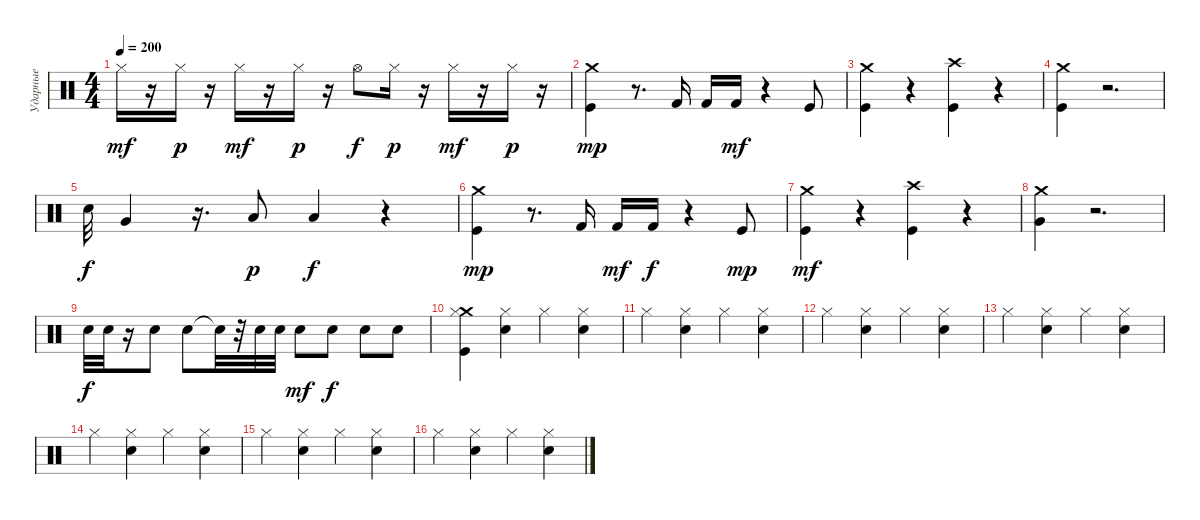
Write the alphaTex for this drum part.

\track ("Ударные" "Ударные") {instrument percussion}
\staff {score}
\articulation defaults
\ts (4 4)
\tempo 200
\clef neutral
\ks c "Hi-Hat (closed)".16{dy mf}
r.16 "Hi-Hat (closed)".16{dy p} r.16 "Hi-Hat (closed)".16{dy mf} r.16 "Hi-Hat (closed)".16{dy p} r.16 "Hi-Hat (open)".8{dy f} "Hi-Hat (closed)".16{dy p} r.16 "Hi-Hat (closed)".16{dy mf} r.16 "Hi-Hat (closed)".16{dy p} r.16 |
("Crash medium (hit)" "Kick (hit)").4{dy mp} r.8{d} "Kick (hit) 2".16 "Kick (hit) 2".16 "Kick (hit) 2".16{dy mf} r.4 "Kick (hit)".8 |
("Kick (hit)" "Crash medium (hit)").4 r.4 ("Crash high (hit)" "Kick (hit)").4 r.4 |
("Crash medium (hit)" "Kick (hit)").4 r.2{d} |
"Snare (hit) 2".32{dy f} "Very Low Tom (hit)".4 r.16{d} "Low Tom (hit)".8{dy p} "Low Floor Tom (hit)".4{dy f} r.4 |
("Crash medium (hit)" "Kick (hit)").4{dy mp} r.8{d} "Kick (hit) 2".16 "Kick (hit) 2".16{dy mf} "Kick (hit) 2".16{dy f} r.4 "Kick (hit)".8{dy mp} |
("Kick (hit)" "Crash medium (hit)").4{dy mf} r.4 ("Crash high (hit)" "Kick (hit)").4 r.4 |
("Crash medium (hit)" "Very Low Tom (hit)").4 r.2{d} |
"Electric Snare (hit)".32{dy f} "Electric Snare (hit)".32 r.16 "Electric Snare (hit)".8 "Electric Snare (hit)".8 "Snare (hit)"{t}.32 r.32 "Electric Snare (hit)".32 "Electric Snare (hit)".32 "Electric Snare (hit)".8{dy mf} "Electric Snare (hit)".8{dy f} "Electric Snare (hit)".8 "Electric Snare (hit)".8 |
("Kick (hit)" "Crash medium (hit)" "Hi-Hat (closed)").4 ("Hi-Hat (closed)" "Snare (hit) 2").4 "Hi-Hat (closed)".4 ("Hi-Hat (closed)" "Snare (hit) 2").4 |
"Hi-Hat (closed)".4 ("Snare (hit) 2" "Hi-Hat (closed)").4 "Hi-Hat (closed)".4 ("Snare (hit) 2" "Hi-Hat (closed)").4 |
"Hi-Hat (closed)".4 ("Snare (hit) 2" "Hi-Hat (closed)").4 "Hi-Hat (closed)".4 ("Snare (hit) 2" "Hi-Hat (closed)").4 |
"Hi-Hat (closed)".4 ("Snare (hit) 2" "Hi-Hat (closed)").4 "Hi-Hat (closed)".4 ("Snare (hit) 2" "Hi-Hat (closed)").4 |
"Hi-Hat (closed)".4 ("Snare (hit) 2" "Hi-Hat (closed)").4 "Hi-Hat (closed)".4 ("Snare (hit) 2" "Hi-Hat (closed)").4 |
"Hi-Hat (closed)".4 ("Snare (hit) 2" "Hi-Hat (closed)").4 "Hi-Hat (closed)".4 ("Snare (hit) 2" "Hi-Hat (closed)").4 |
"Hi-Hat (closed)".4 ("Snare (hit) 2" "Hi-Hat (closed)").4 "Hi-Hat (closed)".4 ("Snare (hit) 2" "Hi-Hat (closed)").4
